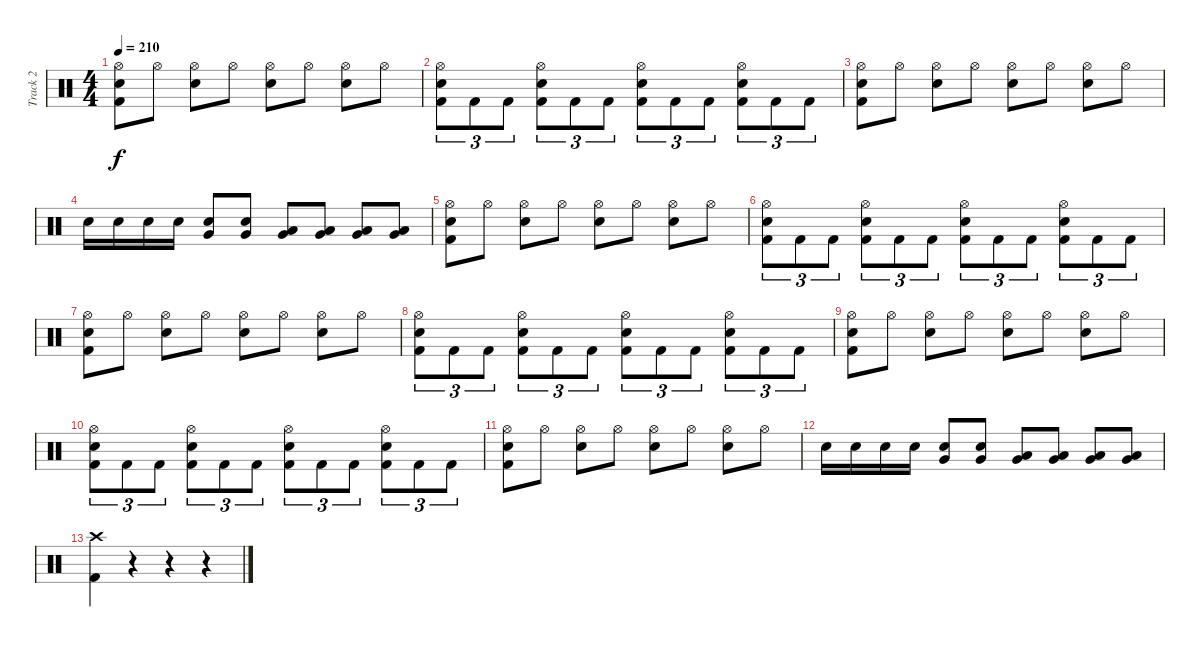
\track ("Track 2" "Track 2") {instrument percussion}
\staff {score}
\articulation defaults
\ts (4 4)
\tempo 210
\clef neutral
\ks c
("Hi-Hat (open)" "Snare (hit) 2" "Kick (hit) 2").8{dy f} "Hi-Hat (open)".8 ("Hi-Hat (open)" "Snare (hit) 2").8 "Hi-Hat (open)".8 ("Hi-Hat (open)" "Snare (hit) 2").8 "Hi-Hat (open)".8 ("Hi-Hat (open)" "Snare (hit) 2").8 "Hi-Hat (open)".8 |
("Hi-Hat (open)" "Snare (hit) 2" "Kick (hit) 2").8{tu (3 2)} "Kick (hit) 2".8{tu (3 2)} "Kick (hit) 2".8{tu (3 2)} ("Hi-Hat (open)" "Snare (hit) 2" "Kick (hit) 2").8{tu (3 2)} "Kick (hit) 2".8{tu (3 2)} "Kick (hit) 2".8{tu (3 2)} ("Hi-Hat (open)" "Snare (hit) 2" "Kick (hit) 2").8{tu (3 2)} "Kick (hit) 2".8{tu (3 2)} "Kick (hit) 2".8{tu (3 2)} ("Hi-Hat (open)" "Snare (hit) 2" "Kick (hit) 2").8{tu (3 2)} "Kick (hit) 2".8{tu (3 2)} "Kick (hit) 2".8{tu (3 2)} |
("Hi-Hat (open)" "Snare (hit) 2" "Kick (hit) 2").8 "Hi-Hat (open)".8 ("Hi-Hat (open)" "Snare (hit) 2").8 "Hi-Hat (open)".8 ("Hi-Hat (open)" "Snare (hit) 2").8 "Hi-Hat (open)".8 ("Hi-Hat (open)" "Snare (hit) 2").8 "Hi-Hat (open)".8 |
"Snare (hit) 2".16 "Snare (hit) 2".16 "Snare (hit) 2".16 "Snare (hit) 2".16 ("Snare (hit) 2" "Very Low Tom (hit)").8 ("Snare (hit) 2" "Very Low Tom (hit)").8 ("Low Tom (hit)" "Very Low Tom (hit)").8 ("Low Tom (hit)" "Very Low Tom (hit)").8 ("Very Low Tom (hit)" "Low Floor Tom (hit)").8 ("Very Low Tom (hit)" "Low Floor Tom (hit)").8 |
("Hi-Hat (open)" "Snare (hit) 2" "Kick (hit) 2").8 "Hi-Hat (open)".8 ("Hi-Hat (open)" "Snare (hit) 2").8 "Hi-Hat (open)".8 ("Hi-Hat (open)" "Snare (hit) 2").8 "Hi-Hat (open)".8 ("Hi-Hat (open)" "Snare (hit) 2").8 "Hi-Hat (open)".8 |
("Hi-Hat (open)" "Snare (hit) 2" "Kick (hit) 2").8{tu (3 2)} "Kick (hit) 2".8{tu (3 2)} "Kick (hit) 2".8{tu (3 2)} ("Hi-Hat (open)" "Snare (hit) 2" "Kick (hit) 2").8{tu (3 2)} "Kick (hit) 2".8{tu (3 2)} "Kick (hit) 2".8{tu (3 2)} ("Hi-Hat (open)" "Snare (hit) 2" "Kick (hit) 2").8{tu (3 2)} "Kick (hit) 2".8{tu (3 2)} "Kick (hit) 2".8{tu (3 2)} ("Hi-Hat (open)" "Snare (hit) 2" "Kick (hit) 2").8{tu (3 2)} "Kick (hit) 2".8{tu (3 2)} "Kick (hit) 2".8{tu (3 2)} |
("Hi-Hat (open)" "Snare (hit) 2" "Kick (hit) 2").8 "Hi-Hat (open)".8 ("Hi-Hat (open)" "Snare (hit) 2").8 "Hi-Hat (open)".8 ("Hi-Hat (open)" "Snare (hit) 2").8 "Hi-Hat (open)".8 ("Hi-Hat (open)" "Snare (hit) 2").8 "Hi-Hat (open)".8 |
("Hi-Hat (open)" "Snare (hit) 2" "Kick (hit) 2").8{tu (3 2)} "Kick (hit) 2".8{tu (3 2)} "Kick (hit) 2".8{tu (3 2)} ("Hi-Hat (open)" "Snare (hit) 2" "Kick (hit) 2").8{tu (3 2)} "Kick (hit) 2".8{tu (3 2)} "Kick (hit) 2".8{tu (3 2)} ("Hi-Hat (open)" "Snare (hit) 2" "Kick (hit) 2").8{tu (3 2)} "Kick (hit) 2".8{tu (3 2)} "Kick (hit) 2".8{tu (3 2)} ("Hi-Hat (open)" "Snare (hit) 2" "Kick (hit) 2").8{tu (3 2)} "Kick (hit) 2".8{tu (3 2)} "Kick (hit) 2".8{tu (3 2)} |
("Hi-Hat (open)" "Snare (hit) 2" "Kick (hit) 2").8 "Hi-Hat (open)".8 ("Hi-Hat (open)" "Snare (hit) 2").8 "Hi-Hat (open)".8 ("Hi-Hat (open)" "Snare (hit) 2").8 "Hi-Hat (open)".8 ("Hi-Hat (open)" "Snare (hit) 2").8 "Hi-Hat (open)".8 |
("Hi-Hat (open)" "Snare (hit) 2" "Kick (hit) 2").8{tu (3 2)} "Kick (hit) 2".8{tu (3 2)} "Kick (hit) 2".8{tu (3 2)} ("Hi-Hat (open)" "Snare (hit) 2" "Kick (hit) 2").8{tu (3 2)} "Kick (hit) 2".8{tu (3 2)} "Kick (hit) 2".8{tu (3 2)} ("Hi-Hat (open)" "Snare (hit) 2" "Kick (hit) 2").8{tu (3 2)} "Kick (hit) 2".8{tu (3 2)} "Kick (hit) 2".8{tu (3 2)} ("Hi-Hat (open)" "Snare (hit) 2" "Kick (hit) 2").8{tu (3 2)} "Kick (hit) 2".8{tu (3 2)} "Kick (hit) 2".8{tu (3 2)} |
("Hi-Hat (open)" "Snare (hit) 2" "Kick (hit) 2").8 "Hi-Hat (open)".8 ("Hi-Hat (open)" "Snare (hit) 2").8 "Hi-Hat (open)".8 ("Hi-Hat (open)" "Snare (hit) 2").8 "Hi-Hat (open)".8 ("Hi-Hat (open)" "Snare (hit) 2").8 "Hi-Hat (open)".8 |
"Snare (hit) 2".16 "Snare (hit) 2".16 "Snare (hit) 2".16 "Snare (hit) 2".16 ("Snare (hit) 2" "Very Low Tom (hit)").8 ("Snare (hit) 2" "Very Low Tom (hit)").8 ("Low Tom (hit)" "Very Low Tom (hit)").8 ("Low Tom (hit)" "Very Low Tom (hit)").8 ("Very Low Tom (hit)" "Low Floor Tom (hit)").8 ("Very Low Tom (hit)" "Low Floor Tom (hit)").8 |
("Crash high (hit)" "Kick (hit) 2").4 r.4 r.4 r.4
